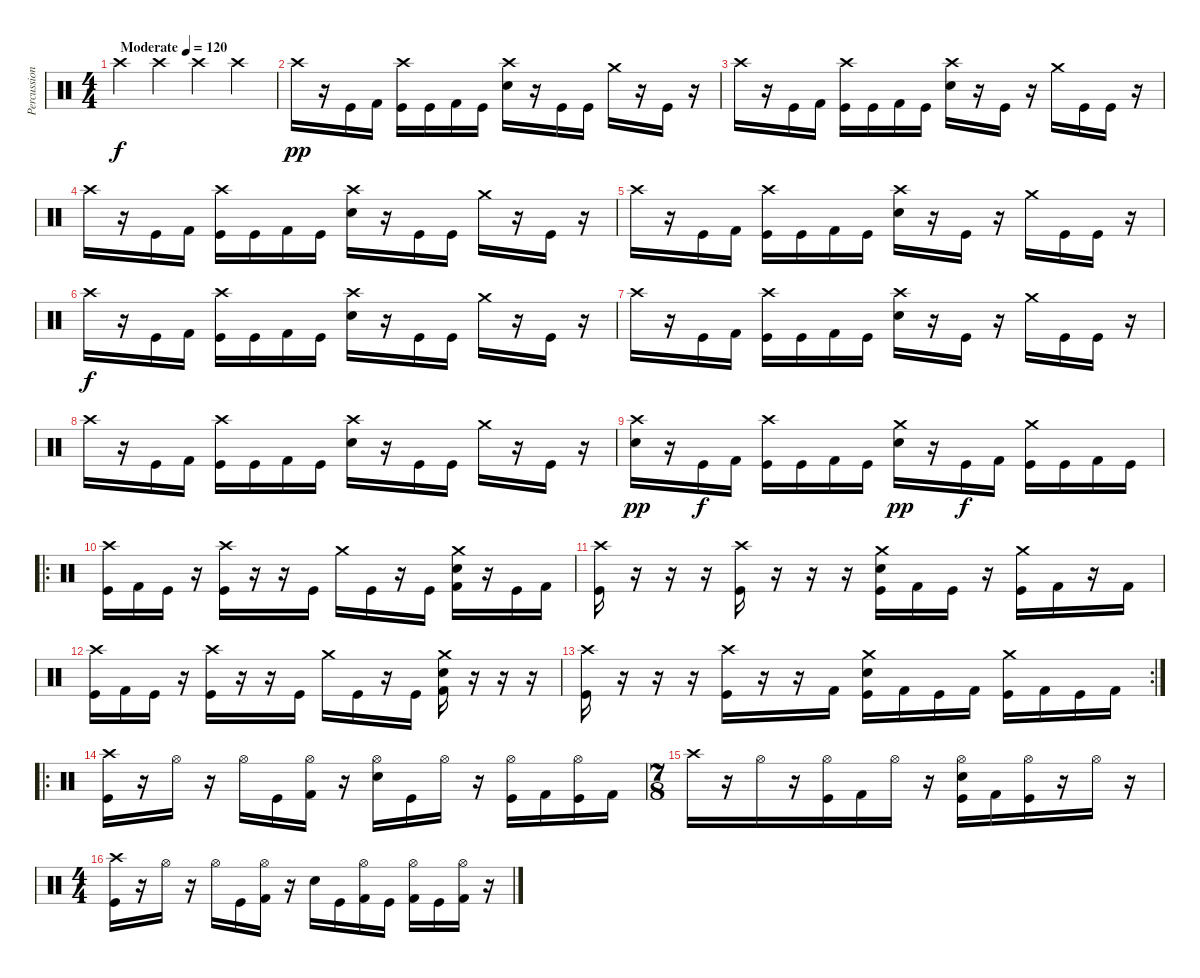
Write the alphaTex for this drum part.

\track ("Percussion" "Percussion") {instrument percussion}
\staff {score}
\articulation defaults
\ts (4 4)
\tempo (120 "Moderate")
\clef neutral
\ks c "Crash high (hit)".4{dy f} "Crash high (hit)".4 "Crash high (hit)".4 "Crash high (hit)".4
|
"Crash high (hit)".16{dy pp} r.16 "Kick (hit)".16 "Kick (hit) 2".16 ("Crash high (hit)" "Kick (hit)").16 "Kick (hit)".16 "Kick (hit) 2".16 "Kick (hit)".16 ("Crash high (hit)" "Snare (hit) 2").16 r.16 "Kick (hit)".16 "Kick (hit)".16 "Crash medium (hit)".16 r.16 "Kick (hit)".16 r.16 |
"Crash high (hit)".16 r.16 "Kick (hit)".16 "Kick (hit) 2".16 ("Crash high (hit)" "Kick (hit)").16 "Kick (hit)".16 "Kick (hit) 2".16 "Kick (hit)".16 ("Crash high (hit)" "Snare (hit) 2").16 r.16 "Kick (hit)".16 r.16 "Crash medium (hit)".16 "Kick (hit)".16 "Kick (hit)".16 r.16 |
"Crash high (hit)".16 r.16 "Kick (hit)".16 "Kick (hit) 2".16 ("Crash high (hit)" "Kick (hit)").16 "Kick (hit)".16 "Kick (hit) 2".16 "Kick (hit)".16 ("Crash high (hit)" "Snare (hit) 2").16 r.16 "Kick (hit)".16 "Kick (hit)".16 "Crash medium (hit)".16 r.16 "Kick (hit)".16 r.16 |
"Crash high (hit)".16 r.16 "Kick (hit)".16 "Kick (hit) 2".16 ("Crash high (hit)" "Kick (hit)").16 "Kick (hit)".16 "Kick (hit) 2".16 "Kick (hit)".16 ("Crash high (hit)" "Snare (hit) 2").16 r.16 "Kick (hit)".16 r.16 "Crash medium (hit)".16 "Kick (hit)".16 "Kick (hit)".16 r.16 |
"Crash high (hit)".16{dy f} r.16 "Kick (hit)".16 "Kick (hit) 2".16 ("Crash high (hit)" "Kick (hit)").16 "Kick (hit)".16 "Kick (hit) 2".16 "Kick (hit)".16 ("Crash high (hit)" "Snare (hit) 2").16 r.16 "Kick (hit)".16 "Kick (hit)".16 "Crash medium (hit)".16 r.16 "Kick (hit)".16 r.16 |
"Crash high (hit)".16 r.16 "Kick (hit)".16 "Kick (hit) 2".16 ("Crash high (hit)" "Kick (hit)").16 "Kick (hit)".16 "Kick (hit) 2".16 "Kick (hit)".16 ("Crash high (hit)" "Snare (hit) 2").16 r.16 "Kick (hit)".16 r.16 "Crash medium (hit)".16 "Kick (hit)".16 "Kick (hit)".16 r.16 |
"Crash high (hit)".16 r.16 "Kick (hit)".16 "Kick (hit) 2".16 ("Crash high (hit)" "Kick (hit)").16 "Kick (hit)".16 "Kick (hit) 2".16 "Kick (hit)".16 ("Crash high (hit)" "Snare (hit) 2").16 r.16 "Kick (hit)".16 "Kick (hit)".16 "Crash medium (hit)".16 r.16 "Kick (hit)".16 r.16 |
("Crash high (hit)" "Snare (hit) 2").16{dy pp} r.16 "Kick (hit)".16{dy f} "Kick (hit) 2".16 ("Crash high (hit)" "Kick (hit)").16 "Kick (hit)".16 "Kick (hit) 2".16 "Kick (hit)".16 ("Crash medium (hit)" "Snare (hit) 2").16{dy pp} r.16 "Kick (hit)".16{dy f} "Kick (hit) 2".16 ("Crash medium (hit)" "Kick (hit)").16 "Kick (hit)".16 "Kick (hit) 2".16 "Kick (hit)".16 |
\ro
("Crash high (hit)" "Kick (hit)").16 "Kick (hit) 2".16 "Kick (hit)".16 r.16 ("Crash high (hit)" "Kick (hit)").16 r.16 r.16 "Kick (hit)".16 "Crash medium (hit)".16 "Kick (hit)".16 r.16 "Kick (hit)".16 ("Crash medium (hit)" "Snare (hit) 2" "Kick (hit) 2").16 r.16 "Kick (hit)".16 "Kick (hit) 2".16 |
("Crash high (hit)" "Kick (hit)").16 r.16 r.16 r.16 ("Crash high (hit)" "Kick (hit)").16 r.16 r.16 r.16 ("Crash medium (hit)" "Snare (hit) 2" "Kick (hit)").16 "Kick (hit) 2".16 "Kick (hit)".16 r.16 ("Crash medium (hit)" "Kick (hit)").16 "Kick (hit) 2".16 r.16 "Kick (hit) 2".16 |
("Crash high (hit)" "Kick (hit)").16 "Kick (hit) 2".16 "Kick (hit)".16 r.16 ("Crash high (hit)" "Kick (hit)").16 r.16 r.16 "Kick (hit)".16 "Crash medium (hit)".16 "Kick (hit)".16 r.16 "Kick (hit)".16 ("Crash medium (hit)" "Snare (hit) 2" "Kick (hit) 2").16 r.16 r.16 r.16 |
\rc 2
("Crash high (hit)" "Kick (hit)").16 r.16 r.16 r.16 ("Crash high (hit)" "Kick (hit)").16 r.16 r.16 "Kick (hit) 2".16 ("Crash medium (hit)" "Snare (hit) 2" "Kick (hit)").16 "Kick (hit) 2".16 "Kick (hit)".16 "Kick (hit) 2".16 ("Crash medium (hit)" "Kick (hit)").16 "Kick (hit) 2".16 "Kick (hit)".16 "Kick (hit) 2".16 |
\ro
("Crash high (hit)" "Kick (hit)").16 r.16 "Hi-Hat (open)".16 r.16 "Hi-Hat (open)".16 "Kick (hit)".16 ("Hi-Hat (open)" "Kick (hit) 2").16 r.16 ("Hi-Hat (open)" "Snare (hit) 2").16 "Kick (hit)".16 "Hi-Hat (open)".16 r.16 ("Hi-Hat (open)" "Kick (hit)").16 "Kick (hit) 2".16 ("Hi-Hat (open)" "Kick (hit)").16 "Kick (hit) 2".16 |
\ts (7 8)
"Crash high (hit)".16 r.16 "Hi-Hat (open)".16 r.16 ("Hi-Hat (open)" "Kick (hit)").16 "Kick (hit) 2".16 "Hi-Hat (open)".16 r.16 ("Hi-Hat (open)" "Snare (hit) 2" "Kick (hit)").16 "Kick (hit) 2".16 ("Hi-Hat (open)" "Kick (hit)").16 r.16 "Hi-Hat (open)".16 r.16 |
\ts (4 4)
("Crash high (hit)" "Kick (hit)").16 r.16 "Hi-Hat (open)".16 r.16 "Hi-Hat (open)".16 "Kick (hit)".16 ("Hi-Hat (open)" "Kick (hit) 2").16 r.16 "Snare (hit) 2".16 "Kick (hit)".16 ("Hi-Hat (open)" "Kick (hit) 2").16 "Kick (hit)".16 ("Hi-Hat (open)" "Kick (hit) 2").16 "Kick (hit)".16 ("Hi-Hat (open)" "Kick (hit) 2").16 r.16
